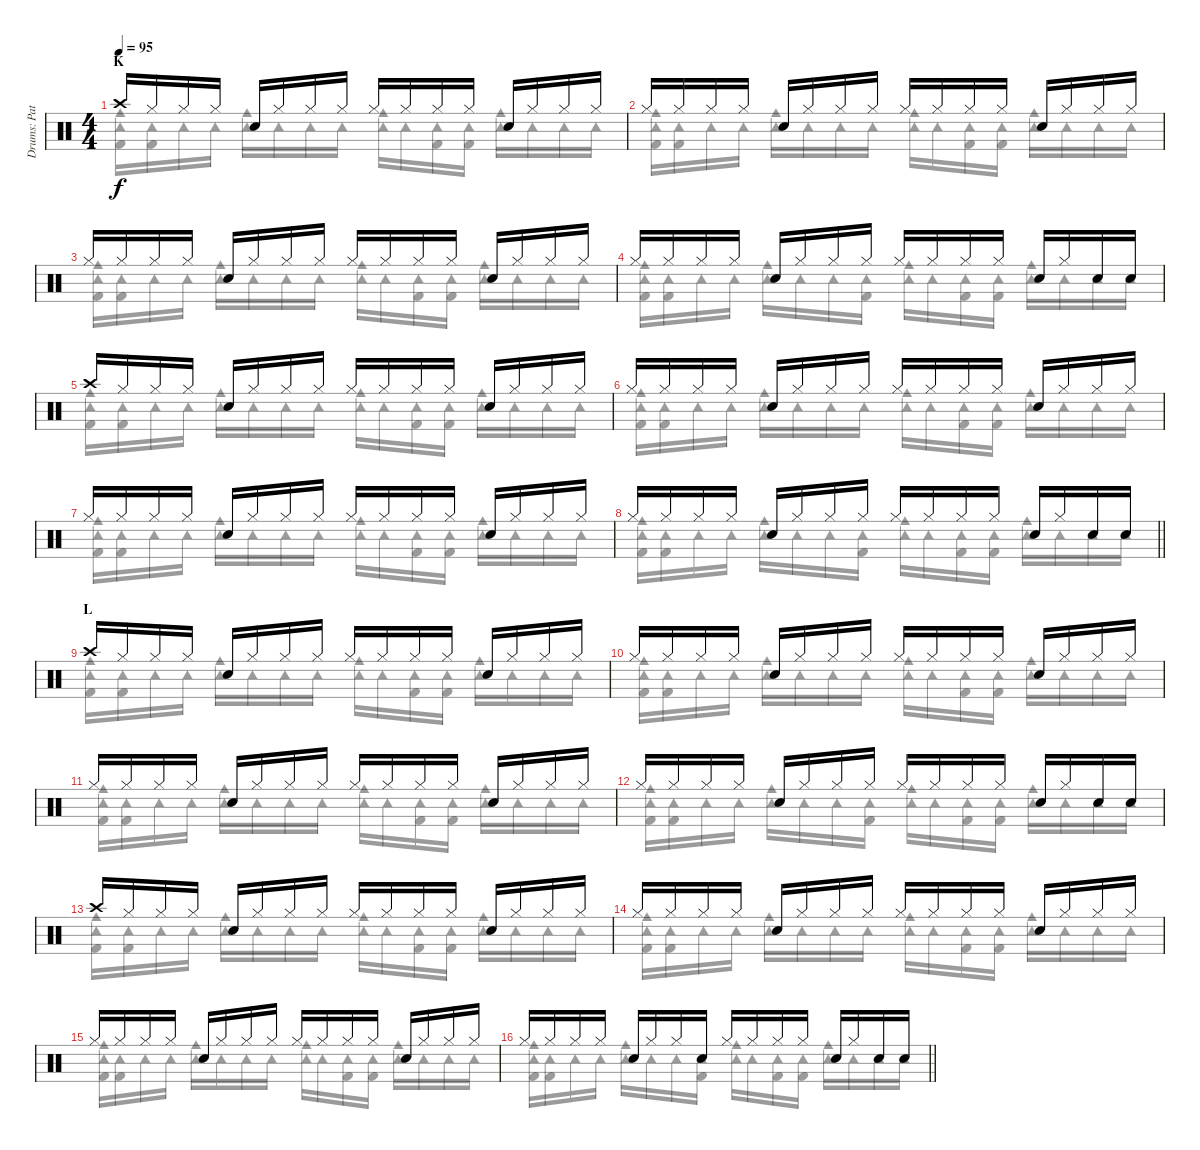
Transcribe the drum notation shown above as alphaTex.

\track ("Drums: Pat" "Drums: Pat") {instrument percussion}
\staff {score}
\articulation defaults
\voice
\ts (4 4)
\section ("" "K")
\tempo 95
\clef neutral
\ks c "Crash high (hit)".16{dy f} "Hi-Hat (closed)".16 "Hi-Hat (closed)".16 "Hi-Hat (closed)".16 "Snare (hit) 2".16 "Hi-Hat (closed)".16 "Hi-Hat (closed)".16 "Hi-Hat (closed)".16 "Hi-Hat (closed)".16 "Hi-Hat (closed)".16 "Hi-Hat (closed)".16 "Hi-Hat (closed)".16 "Snare (hit) 2".16 "Hi-Hat (closed)".16 "Hi-Hat (closed)".16 "Hi-Hat (closed)".16
|
"Hi-Hat (closed)".16 "Hi-Hat (closed)".16 "Hi-Hat (closed)".16 "Hi-Hat (closed)".16 "Snare (hit) 2".16 "Hi-Hat (closed)".16 "Hi-Hat (closed)".16 "Hi-Hat (closed)".16 "Hi-Hat (closed)".16 "Hi-Hat (closed)".16 "Hi-Hat (closed)".16 "Hi-Hat (closed)".16 "Snare (hit) 2".16 "Hi-Hat (closed)".16 "Hi-Hat (closed)".16 "Hi-Hat (closed)".16 |
"Hi-Hat (closed)".16 "Hi-Hat (closed)".16 "Hi-Hat (closed)".16 "Hi-Hat (closed)".16 "Snare (hit) 2".16 "Hi-Hat (closed)".16 "Hi-Hat (closed)".16 "Hi-Hat (closed)".16 "Hi-Hat (closed)".16 "Hi-Hat (closed)".16 "Hi-Hat (closed)".16 "Hi-Hat (closed)".16 "Snare (hit) 2".16 "Hi-Hat (closed)".16 "Hi-Hat (closed)".16 "Hi-Hat (closed)".16 |
"Hi-Hat (closed)".16 "Hi-Hat (closed)".16 "Hi-Hat (closed)".16 "Hi-Hat (closed)".16 "Snare (hit) 2".16 "Hi-Hat (closed)".16 "Hi-Hat (closed)".16 "Hi-Hat (closed)".16 "Hi-Hat (closed)".16 "Hi-Hat (closed)".16 "Hi-Hat (closed)".16 "Hi-Hat (closed)".16 "Snare (hit) 2".16 "Hi-Hat (closed)".16 "Snare (hit) 2".16 "Snare (hit) 2".16 |
"Crash high (hit)".16 "Hi-Hat (closed)".16 "Hi-Hat (closed)".16 "Hi-Hat (closed)".16 "Snare (hit) 2".16 "Hi-Hat (closed)".16 "Hi-Hat (closed)".16 "Hi-Hat (closed)".16 "Hi-Hat (closed)".16 "Hi-Hat (closed)".16 "Hi-Hat (closed)".16 "Hi-Hat (closed)".16 "Snare (hit) 2".16 "Hi-Hat (closed)".16 "Hi-Hat (closed)".16 "Hi-Hat (closed)".16 |
"Hi-Hat (closed)".16 "Hi-Hat (closed)".16 "Hi-Hat (closed)".16 "Hi-Hat (closed)".16 "Snare (hit) 2".16 "Hi-Hat (closed)".16 "Hi-Hat (closed)".16 "Hi-Hat (closed)".16 "Hi-Hat (closed)".16 "Hi-Hat (closed)".16 "Hi-Hat (closed)".16 "Hi-Hat (closed)".16 "Snare (hit) 2".16 "Hi-Hat (closed)".16 "Hi-Hat (closed)".16 "Hi-Hat (closed)".16 |
"Hi-Hat (closed)".16 "Hi-Hat (closed)".16 "Hi-Hat (closed)".16 "Hi-Hat (closed)".16 "Snare (hit) 2".16 "Hi-Hat (closed)".16 "Hi-Hat (closed)".16 "Hi-Hat (closed)".16 "Hi-Hat (closed)".16 "Hi-Hat (closed)".16 "Hi-Hat (closed)".16 "Hi-Hat (closed)".16 "Snare (hit) 2".16 "Hi-Hat (closed)".16 "Hi-Hat (closed)".16 "Hi-Hat (closed)".16 |
\barLineRight lightlight "Hi-Hat (closed)".16 "Hi-Hat (closed)".16 "Hi-Hat (closed)".16 "Hi-Hat (closed)".16 "Snare (hit) 2".16 "Hi-Hat (closed)".16 "Hi-Hat (closed)".16 "Hi-Hat (closed)".16 "Hi-Hat (closed)".16 "Hi-Hat (closed)".16 "Hi-Hat (closed)".16 "Hi-Hat (closed)".16 "Snare (hit) 2".16 "Hi-Hat (closed)".16 "Snare (hit) 2".16 "Snare (hit) 2".16
|
\section ("" "L")
"Crash high (hit)".16 "Hi-Hat (closed)".16 "Hi-Hat (closed)".16 "Hi-Hat (closed)".16 "Snare (hit) 2".16 "Hi-Hat (closed)".16 "Hi-Hat (closed)".16 "Hi-Hat (closed)".16 "Hi-Hat (closed)".16 "Hi-Hat (closed)".16 "Hi-Hat (closed)".16 "Hi-Hat (closed)".16 "Snare (hit) 2".16 "Hi-Hat (closed)".16 "Hi-Hat (closed)".16 "Hi-Hat (closed)".16 |
"Hi-Hat (closed)".16 "Hi-Hat (closed)".16 "Hi-Hat (closed)".16 "Hi-Hat (closed)".16 "Snare (hit) 2".16 "Hi-Hat (closed)".16 "Hi-Hat (closed)".16 "Hi-Hat (closed)".16 "Hi-Hat (closed)".16 "Hi-Hat (closed)".16 "Hi-Hat (closed)".16 "Hi-Hat (closed)".16 "Snare (hit) 2".16 "Hi-Hat (closed)".16 "Hi-Hat (closed)".16 "Hi-Hat (closed)".16 |
"Hi-Hat (closed)".16 "Hi-Hat (closed)".16 "Hi-Hat (closed)".16 "Hi-Hat (closed)".16 "Snare (hit) 2".16 "Hi-Hat (closed)".16 "Hi-Hat (closed)".16 "Hi-Hat (closed)".16 "Hi-Hat (closed)".16 "Hi-Hat (closed)".16 "Hi-Hat (closed)".16 "Hi-Hat (closed)".16 "Snare (hit) 2".16 "Hi-Hat (closed)".16 "Hi-Hat (closed)".16 "Hi-Hat (closed)".16 |
"Hi-Hat (closed)".16 "Hi-Hat (closed)".16 "Hi-Hat (closed)".16 "Hi-Hat (closed)".16 "Snare (hit) 2".16 "Hi-Hat (closed)".16 "Hi-Hat (closed)".16 "Hi-Hat (closed)".16 "Hi-Hat (closed)".16 "Hi-Hat (closed)".16 "Hi-Hat (closed)".16 "Hi-Hat (closed)".16 "Snare (hit) 2".16 "Hi-Hat (closed)".16 "Snare (hit) 2".16 "Snare (hit) 2".16 |
"Crash high (hit)".16 "Hi-Hat (closed)".16 "Hi-Hat (closed)".16 "Hi-Hat (closed)".16 "Snare (hit) 2".16 "Hi-Hat (closed)".16 "Hi-Hat (closed)".16 "Hi-Hat (closed)".16 "Hi-Hat (closed)".16 "Hi-Hat (closed)".16 "Hi-Hat (closed)".16 "Hi-Hat (closed)".16 "Snare (hit) 2".16 "Hi-Hat (closed)".16 "Hi-Hat (closed)".16 "Hi-Hat (closed)".16 |
"Hi-Hat (closed)".16 "Hi-Hat (closed)".16 "Hi-Hat (closed)".16 "Hi-Hat (closed)".16 "Snare (hit) 2".16 "Hi-Hat (closed)".16 "Hi-Hat (closed)".16 "Hi-Hat (closed)".16 "Hi-Hat (closed)".16 "Hi-Hat (closed)".16 "Hi-Hat (closed)".16 "Hi-Hat (closed)".16 "Snare (hit) 2".16 "Hi-Hat (closed)".16 "Hi-Hat (closed)".16 "Hi-Hat (closed)".16 |
"Hi-Hat (closed)".16 "Hi-Hat (closed)".16 "Hi-Hat (closed)".16 "Hi-Hat (closed)".16 "Snare (hit) 2".16 "Hi-Hat (closed)".16 "Hi-Hat (closed)".16 "Hi-Hat (closed)".16 "Hi-Hat (closed)".16 "Hi-Hat (closed)".16 "Hi-Hat (closed)".16 "Hi-Hat (closed)".16 "Snare (hit) 2".16 "Hi-Hat (closed)".16 "Hi-Hat (closed)".16 "Hi-Hat (closed)".16 |
\barLineRight lightlight "Hi-Hat (closed)".16 "Hi-Hat (closed)".16 "Hi-Hat (closed)".16 "Hi-Hat (closed)".16 "Snare (hit) 2".16 "Hi-Hat (closed)".16 "Hi-Hat (closed)".16 "Snare (hit) 2".16 "Hi-Hat (closed)".16 "Hi-Hat (closed)".16 "Hi-Hat (closed)".16 "Hi-Hat (closed)".16 "Snare (hit) 2".16 "Hi-Hat (closed)".16 "Snare (hit) 2".16 "Snare (hit) 2".16
\voice
\clef neutral
\ottava regular
\simile none
\ks c
("Cowbell medium (hit)" "Kick (hit) 2" "Tambourine (hit)").16{dy f} ("Kick (hit) 2" "Tambourine (hit)").16 "Tambourine (hit)".16 "Tambourine (hit)".16 ("Cowbell medium (hit)" "Tambourine (hit)").16 "Tambourine (hit)".16 "Tambourine (hit)".16 "Tambourine (hit)".16 ("Cowbell medium (hit)" "Tambourine (hit)").16 "Tambourine (hit)".16 ("Kick (hit) 2" "Tambourine (hit)").16 ("Kick (hit) 2" "Tambourine (hit)").16 ("Cowbell medium (hit)" "Tambourine (hit)").16 "Tambourine (hit)".16 "Tambourine (hit)".16 "Tambourine (hit)".16 |
("Cowbell medium (hit)" "Kick (hit) 2" "Tambourine (hit)").16 ("Kick (hit) 2" "Tambourine (hit)").16 "Tambourine (hit)".16 "Tambourine (hit)".16 ("Cowbell medium (hit)" "Tambourine (hit)").16 "Tambourine (hit)".16 "Tambourine (hit)".16 "Tambourine (hit)".16 ("Cowbell medium (hit)" "Tambourine (hit)").16 "Tambourine (hit)".16 ("Kick (hit) 2" "Tambourine (hit)").16 ("Kick (hit) 2" "Tambourine (hit)").16 ("Cowbell medium (hit)" "Tambourine (hit)").16 "Tambourine (hit)".16 "Tambourine (hit)".16 "Tambourine (hit)".16 |
("Cowbell medium (hit)" "Kick (hit) 2" "Tambourine (hit)").16 ("Kick (hit) 2" "Tambourine (hit)").16 "Tambourine (hit)".16 "Tambourine (hit)".16 ("Cowbell medium (hit)" "Tambourine (hit)").16 "Tambourine (hit)".16 "Tambourine (hit)".16 "Tambourine (hit)".16 ("Cowbell medium (hit)" "Tambourine (hit)").16 "Tambourine (hit)".16 ("Kick (hit) 2" "Tambourine (hit)").16 ("Kick (hit) 2" "Tambourine (hit)").16 ("Cowbell medium (hit)" "Tambourine (hit)").16 "Tambourine (hit)".16 "Tambourine (hit)".16 "Tambourine (hit)".16 |
("Cowbell medium (hit)" "Kick (hit) 2" "Tambourine (hit)").16 ("Kick (hit) 2" "Tambourine (hit)").16 "Tambourine (hit)".16 "Tambourine (hit)".16 ("Cowbell medium (hit)" "Tambourine (hit)").16 "Tambourine (hit)".16 "Tambourine (hit)".16 ("Kick (hit) 2" "Tambourine (hit)").16 ("Cowbell medium (hit)" "Tambourine (hit)").16 "Tambourine (hit)".16 ("Kick (hit) 2" "Tambourine (hit)").16 ("Kick (hit) 2" "Tambourine (hit)").16 ("Cowbell medium (hit)" "Tambourine (hit)").16 "Tambourine (hit)".16 "Tambourine (hit)".16 "Tambourine (hit)".16 |
("Cowbell medium (hit)" "Kick (hit) 2" "Tambourine (hit)").16 ("Kick (hit) 2" "Tambourine (hit)").16 "Tambourine (hit)".16 "Tambourine (hit)".16 ("Cowbell medium (hit)" "Tambourine (hit)").16 "Tambourine (hit)".16 "Tambourine (hit)".16 "Tambourine (hit)".16 ("Cowbell medium (hit)" "Tambourine (hit)").16 "Tambourine (hit)".16 ("Kick (hit) 2" "Tambourine (hit)").16 ("Kick (hit) 2" "Tambourine (hit)").16 ("Cowbell medium (hit)" "Tambourine (hit)").16 "Tambourine (hit)".16 "Tambourine (hit)".16 "Tambourine (hit)".16 |
("Cowbell medium (hit)" "Kick (hit) 2" "Tambourine (hit)").16 ("Kick (hit) 2" "Tambourine (hit)").16 "Tambourine (hit)".16 "Tambourine (hit)".16 ("Cowbell medium (hit)" "Tambourine (hit)").16 "Tambourine (hit)".16 "Tambourine (hit)".16 "Tambourine (hit)".16 ("Cowbell medium (hit)" "Tambourine (hit)").16 "Tambourine (hit)".16 ("Kick (hit) 2" "Tambourine (hit)").16 ("Kick (hit) 2" "Tambourine (hit)").16 ("Cowbell medium (hit)" "Tambourine (hit)").16 "Tambourine (hit)".16 "Tambourine (hit)".16 "Tambourine (hit)".16 |
("Cowbell medium (hit)" "Kick (hit) 2" "Tambourine (hit)").16 ("Kick (hit) 2" "Tambourine (hit)").16 "Tambourine (hit)".16 "Tambourine (hit)".16 ("Cowbell medium (hit)" "Tambourine (hit)").16 "Tambourine (hit)".16 "Tambourine (hit)".16 "Tambourine (hit)".16 ("Cowbell medium (hit)" "Tambourine (hit)").16 "Tambourine (hit)".16 ("Kick (hit) 2" "Tambourine (hit)").16 ("Kick (hit) 2" "Tambourine (hit)").16 ("Cowbell medium (hit)" "Tambourine (hit)").16 "Tambourine (hit)".16 "Tambourine (hit)".16 "Tambourine (hit)".16 |
\barLineRight lightlight
("Cowbell medium (hit)" "Kick (hit) 2" "Tambourine (hit)").16 ("Kick (hit) 2" "Tambourine (hit)").16 "Tambourine (hit)".16 "Tambourine (hit)".16 ("Cowbell medium (hit)" "Tambourine (hit)").16 "Tambourine (hit)".16 "Tambourine (hit)".16 ("Kick (hit) 2" "Tambourine (hit)").16 ("Cowbell medium (hit)" "Tambourine (hit)").16 "Tambourine (hit)".16 ("Kick (hit) 2" "Tambourine (hit)").16 ("Kick (hit) 2" "Tambourine (hit)").16 ("Cowbell medium (hit)" "Tambourine (hit)").16 "Tambourine (hit)".16 "Tambourine (hit)".16 "Tambourine (hit)".16 |
("Cowbell medium (hit)" "Kick (hit) 2" "Tambourine (hit)").16 ("Kick (hit) 2" "Tambourine (hit)").16 "Tambourine (hit)".16 "Tambourine (hit)".16 ("Cowbell medium (hit)" "Tambourine (hit)").16 "Tambourine (hit)".16 "Tambourine (hit)".16 "Tambourine (hit)".16 ("Cowbell medium (hit)" "Tambourine (hit)").16 "Tambourine (hit)".16 ("Kick (hit) 2" "Tambourine (hit)").16 ("Kick (hit) 2" "Tambourine (hit)").16 ("Cowbell medium (hit)" "Tambourine (hit)").16 "Tambourine (hit)".16 "Tambourine (hit)".16 "Tambourine (hit)".16 |
("Cowbell medium (hit)" "Kick (hit) 2" "Tambourine (hit)").16 ("Kick (hit) 2" "Tambourine (hit)").16 "Tambourine (hit)".16 "Tambourine (hit)".16 ("Cowbell medium (hit)" "Tambourine (hit)").16 "Tambourine (hit)".16 "Tambourine (hit)".16 "Tambourine (hit)".16 ("Cowbell medium (hit)" "Tambourine (hit)").16 "Tambourine (hit)".16 ("Kick (hit) 2" "Tambourine (hit)").16 ("Kick (hit) 2" "Tambourine (hit)").16 ("Cowbell medium (hit)" "Tambourine (hit)").16 "Tambourine (hit)".16 "Tambourine (hit)".16 "Tambourine (hit)".16 |
("Cowbell medium (hit)" "Kick (hit) 2" "Tambourine (hit)").16 ("Kick (hit) 2" "Tambourine (hit)").16 "Tambourine (hit)".16 "Tambourine (hit)".16 ("Cowbell medium (hit)" "Tambourine (hit)").16 "Tambourine (hit)".16 "Tambourine (hit)".16 "Tambourine (hit)".16 ("Cowbell medium (hit)" "Tambourine (hit)").16 "Tambourine (hit)".16 ("Kick (hit) 2" "Tambourine (hit)").16 ("Kick (hit) 2" "Tambourine (hit)").16 ("Cowbell medium (hit)" "Tambourine (hit)").16 "Tambourine (hit)".16 "Tambourine (hit)".16 "Tambourine (hit)".16 |
("Cowbell medium (hit)" "Kick (hit) 2" "Tambourine (hit)").16 ("Kick (hit) 2" "Tambourine (hit)").16 "Tambourine (hit)".16 "Tambourine (hit)".16 ("Cowbell medium (hit)" "Tambourine (hit)").16 "Tambourine (hit)".16 "Tambourine (hit)".16 ("Kick (hit) 2" "Tambourine (hit)").16 ("Cowbell medium (hit)" "Tambourine (hit)").16 "Tambourine (hit)".16 ("Kick (hit) 2" "Tambourine (hit)").16 ("Kick (hit) 2" "Tambourine (hit)").16 ("Cowbell medium (hit)" "Tambourine (hit)").16 "Tambourine (hit)".16 "Tambourine (hit)".16 "Tambourine (hit)".16 |
("Cowbell medium (hit)" "Kick (hit) 2" "Tambourine (hit)").16 ("Kick (hit) 2" "Tambourine (hit)").16 "Tambourine (hit)".16 "Tambourine (hit)".16 ("Cowbell medium (hit)" "Tambourine (hit)").16 "Tambourine (hit)".16 "Tambourine (hit)".16 "Tambourine (hit)".16 ("Cowbell medium (hit)" "Tambourine (hit)").16 "Tambourine (hit)".16 ("Kick (hit) 2" "Tambourine (hit)").16 ("Kick (hit) 2" "Tambourine (hit)").16 ("Cowbell medium (hit)" "Tambourine (hit)").16 "Tambourine (hit)".16 "Tambourine (hit)".16 "Tambourine (hit)".16 |
("Cowbell medium (hit)" "Kick (hit) 2" "Tambourine (hit)").16 ("Kick (hit) 2" "Tambourine (hit)").16 "Tambourine (hit)".16 "Tambourine (hit)".16 ("Cowbell medium (hit)" "Tambourine (hit)").16 "Tambourine (hit)".16 "Tambourine (hit)".16 "Tambourine (hit)".16 ("Cowbell medium (hit)" "Tambourine (hit)").16 "Tambourine (hit)".16 ("Kick (hit) 2" "Tambourine (hit)").16 ("Kick (hit) 2" "Tambourine (hit)").16 ("Cowbell medium (hit)" "Tambourine (hit)").16 "Tambourine (hit)".16 "Tambourine (hit)".16 "Tambourine (hit)".16 |
("Cowbell medium (hit)" "Kick (hit) 2" "Tambourine (hit)").16 ("Kick (hit) 2" "Tambourine (hit)").16 "Tambourine (hit)".16 "Tambourine (hit)".16 ("Cowbell medium (hit)" "Tambourine (hit)").16 "Tambourine (hit)".16 "Tambourine (hit)".16 "Tambourine (hit)".16 ("Cowbell medium (hit)" "Tambourine (hit)").16 "Tambourine (hit)".16 ("Kick (hit) 2" "Tambourine (hit)").16 ("Kick (hit) 2" "Tambourine (hit)").16 ("Cowbell medium (hit)" "Tambourine (hit)").16 "Tambourine (hit)".16 "Tambourine (hit)".16 "Tambourine (hit)".16 |
\barLineRight lightlight
("Cowbell medium (hit)" "Kick (hit) 2" "Tambourine (hit)").16 ("Kick (hit) 2" "Tambourine (hit)").16 "Tambourine (hit)".16 "Tambourine (hit)".16 ("Cowbell medium (hit)" "Tambourine (hit)").16 "Tambourine (hit)".16 "Tambourine (hit)".16 ("Kick (hit) 2" "Tambourine (hit)").16 ("Cowbell medium (hit)" "Tambourine (hit)").16 "Tambourine (hit)".16 ("Kick (hit) 2" "Tambourine (hit)").16 ("Kick (hit) 2" "Tambourine (hit)").16 ("Cowbell medium (hit)" "Tambourine (hit)").16 "Tambourine (hit)".16 "Tambourine (hit)".16 "Tambourine (hit)".16
